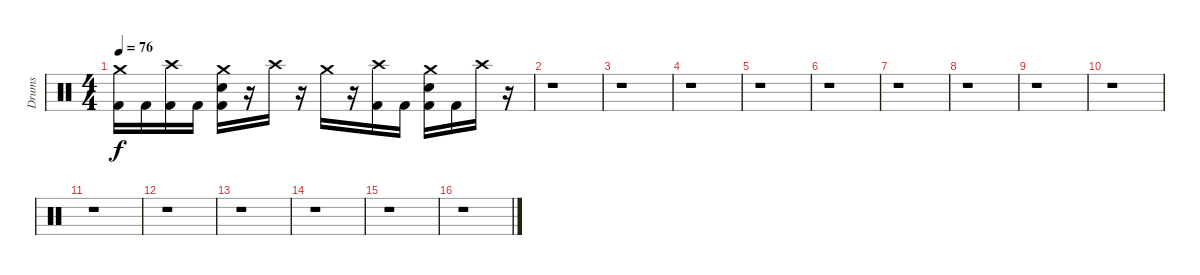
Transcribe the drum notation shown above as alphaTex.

\track ("Drums" "Drums") {instrument percussion}
\staff {score}
\articulation defaults
\ts (4 4)
\tempo 76
\clef neutral
\ks c
("Crash medium (hit)" "Kick (hit) 2").16{dy f} "Kick (hit) 2".16 ("Crash high (hit)" "Kick (hit) 2").16 "Kick (hit) 2".16 ("Crash medium (hit)" "Electric Snare (hit)" "Kick (hit) 2").16 r.16 "Crash high (hit)".16 r.16 "Crash medium (hit)".16 r.16 ("Crash high (hit)" "Kick (hit) 2").16 "Kick (hit) 2".16 ("Crash medium (hit)" "Electric Snare (hit)" "Kick (hit) 2").16 "Kick (hit) 2".16 "Crash high (hit)".16 r.16 |
\section ("" "")
r.1 |
r.1 |
r.1 |
r.1 |
r.1 |
r.1 |
r.1 |
r.1 |
\section ("" "")
r.1 |
r.1 |
\section ("" "")
r.1 |
r.1 |
r.1 |
r.1 |
r.1
